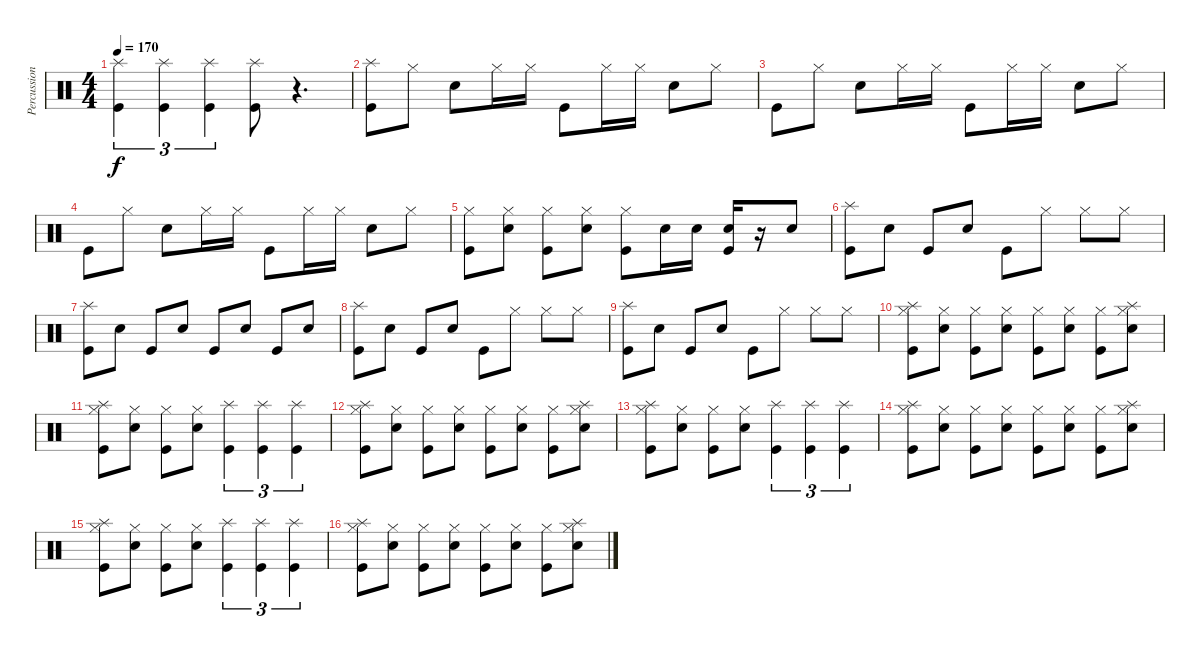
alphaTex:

\track ("Percussion" "Percussion") {instrument percussion}
\staff {score}
\articulation defaults
\ts (4 4)
\tempo 170
\clef neutral
\ks c
("Splash (hit)" "Kick (hit)").4{tu (3 2) dy f} ("Splash (hit)" "Kick (hit)").4{tu (3 2)} ("Splash (hit)" "Kick (hit)").4{tu (3 2)} ("Splash (hit)" "Kick (hit)").8 r.4{d} |
("Splash (hit)" "Kick (hit)").8 "Hi-Hat (closed)".8 "Electric Snare (hit)".8 "Hi-Hat (closed)".16 "Hi-Hat (closed)".16 "Kick (hit)".8 "Hi-Hat (closed)".16 "Hi-Hat (closed)".16 "Electric Snare (hit)".8 "Hi-Hat (closed)".8 |
"Kick (hit)".8 "Hi-Hat (closed)".8 "Electric Snare (hit)".8 "Hi-Hat (closed)".16 "Hi-Hat (closed)".16 "Kick (hit)".8 "Hi-Hat (closed)".16 "Hi-Hat (closed)".16 "Electric Snare (hit)".8 "Hi-Hat (closed)".8 |
"Kick (hit)".8 "Hi-Hat (closed)".8 "Electric Snare (hit)".8 "Hi-Hat (closed)".16 "Hi-Hat (closed)".16 "Kick (hit)".8 "Hi-Hat (closed)".16 "Hi-Hat (closed)".16 "Electric Snare (hit)".8 "Hi-Hat (closed)".8 |
("Hi-Hat (closed)" "Kick (hit)").8 ("Hi-Hat (closed)" "Electric Snare (hit)").8 ("Hi-Hat (closed)" "Kick (hit)").8 ("Hi-Hat (closed)" "Electric Snare (hit)").8 ("Hi-Hat (closed)" "Kick (hit)").8 "Electric Snare (hit)".16 "Electric Snare (hit)".16 ("Electric Snare (hit)" "Kick (hit)").16 r.16 "Electric Snare (hit)".8 |
("Splash (hit)" "Kick (hit)").8 "Electric Snare (hit)".8 "Kick (hit)".8 "Electric Snare (hit)".8 "Kick (hit)".8 "Hi-Hat (closed)".8 "Hi-Hat (closed)".8 "Hi-Hat (closed)".8 |
("Splash (hit)" "Kick (hit)").8 "Electric Snare (hit)".8 "Kick (hit)".8 "Electric Snare (hit)".8 "Kick (hit)".8 "Electric Snare (hit)".8 "Kick (hit)".8 "Electric Snare (hit)".8 |
("Splash (hit)" "Kick (hit)").8 "Electric Snare (hit)".8 "Kick (hit)".8 "Electric Snare (hit)".8 "Kick (hit)".8 "Hi-Hat (closed)".8 "Hi-Hat (closed)".8 "Hi-Hat (closed)".8 |
("Splash (hit)" "Kick (hit)").8 "Electric Snare (hit)".8 "Kick (hit)".8 "Electric Snare (hit)".8 "Kick (hit)".8 "Hi-Hat (closed)".8 "Hi-Hat (closed)".8 "Hi-Hat (closed)".8 |
("Splash (hit)" "Hi-Hat (closed)" "Kick (hit)").8 ("Hi-Hat (closed)" "Electric Snare (hit)").8 ("Hi-Hat (closed)" "Kick (hit)").8 ("Hi-Hat (closed)" "Electric Snare (hit)").8 ("Hi-Hat (closed)" "Kick (hit)").8 ("Hi-Hat (closed)" "Electric Snare (hit)").8 ("Hi-Hat (closed)" "Kick (hit)").8 ("Splash (hit)" "Hi-Hat (closed)" "Electric Snare (hit)").8 |
("Splash (hit)" "Hi-Hat (closed)" "Kick (hit)").8 ("Hi-Hat (closed)" "Electric Snare (hit)").8 ("Hi-Hat (closed)" "Kick (hit)").8 ("Hi-Hat (closed)" "Electric Snare (hit)").8 ("Splash (hit)" "Kick (hit)").4{tu (3 2)} ("Splash (hit)" "Kick (hit)").4{tu (3 2)} ("Splash (hit)" "Kick (hit)").4{tu (3 2)} |
("Splash (hit)" "Hi-Hat (closed)" "Kick (hit)").8 ("Hi-Hat (closed)" "Electric Snare (hit)").8 ("Hi-Hat (closed)" "Kick (hit)").8 ("Hi-Hat (closed)" "Electric Snare (hit)").8 ("Hi-Hat (closed)" "Kick (hit)").8 ("Hi-Hat (closed)" "Electric Snare (hit)").8 ("Hi-Hat (closed)" "Kick (hit)").8 ("Splash (hit)" "Hi-Hat (closed)" "Electric Snare (hit)").8 |
("Splash (hit)" "Hi-Hat (closed)" "Kick (hit)").8 ("Hi-Hat (closed)" "Electric Snare (hit)").8 ("Hi-Hat (closed)" "Kick (hit)").8 ("Hi-Hat (closed)" "Electric Snare (hit)").8 ("Splash (hit)" "Kick (hit)").4{tu (3 2)} ("Splash (hit)" "Kick (hit)").4{tu (3 2)} ("Splash (hit)" "Kick (hit)").4{tu (3 2)} |
("Splash (hit)" "Hi-Hat (closed)" "Kick (hit)").8 ("Hi-Hat (closed)" "Electric Snare (hit)").8 ("Hi-Hat (closed)" "Kick (hit)").8 ("Hi-Hat (closed)" "Electric Snare (hit)").8 ("Hi-Hat (closed)" "Kick (hit)").8 ("Hi-Hat (closed)" "Electric Snare (hit)").8 ("Hi-Hat (closed)" "Kick (hit)").8 ("Splash (hit)" "Hi-Hat (closed)" "Electric Snare (hit)").8 |
("Splash (hit)" "Hi-Hat (closed)" "Kick (hit)").8 ("Hi-Hat (closed)" "Electric Snare (hit)").8 ("Hi-Hat (closed)" "Kick (hit)").8 ("Hi-Hat (closed)" "Electric Snare (hit)").8 ("Splash (hit)" "Kick (hit)").4{tu (3 2)} ("Splash (hit)" "Kick (hit)").4{tu (3 2)} ("Splash (hit)" "Kick (hit)").4{tu (3 2)} |
("Splash (hit)" "Hi-Hat (closed)" "Kick (hit)").8 ("Hi-Hat (closed)" "Electric Snare (hit)").8 ("Hi-Hat (closed)" "Kick (hit)").8 ("Hi-Hat (closed)" "Electric Snare (hit)").8 ("Hi-Hat (closed)" "Kick (hit)").8 ("Hi-Hat (closed)" "Electric Snare (hit)").8 ("Hi-Hat (closed)" "Kick (hit)").8 ("Splash (hit)" "Hi-Hat (closed)" "Electric Snare (hit)").8
